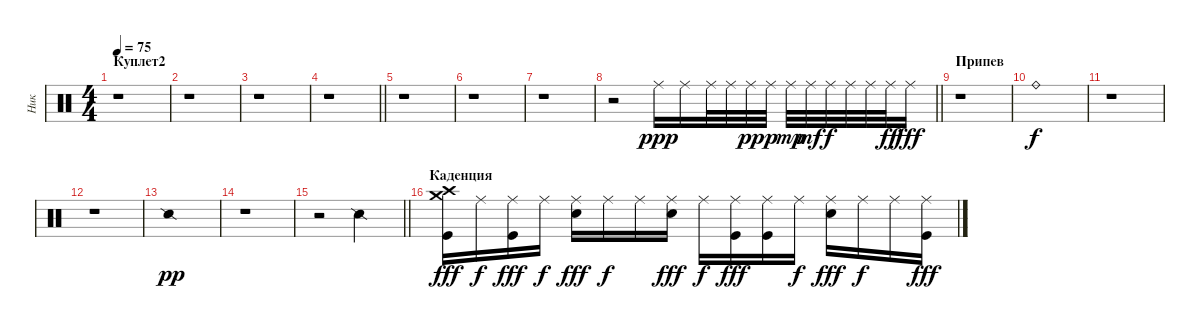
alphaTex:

\track ("Ник" "Ник") {instrument percussion}
\staff {score}
\articulation defaults
\ts (4 4)
\section ("" "Куплет2")
\tempo 75
\clef neutral
\ks c
r.1{dy ppp} |
r.1 |
r.1 |
\barLineRight lightlight
r.1 |
r.1 |
r.1 |
r.1 |
\barLineRight lightlight
r.2 "Ride (middle)".16 "Ride (middle)".16 "Ride (middle)".32 "Ride (middle)".32 "Ride (middle)".32{dy pp} "Ride (middle)".32{dy p} "Ride (middle)".32{dy mp} "Ride (middle)".32{dy mf} "Ride (middle)".32{dy f} "Ride (middle)".32 "Ride (middle)".32 "Ride (middle)".32{dy ff} "Ride (middle)".16{dy fff} |
\section ("" "Припев")
r.1 |
"Ride (bell)".1{dy f} |
r.1 |
r.1 |
"Snare (side stick) 2".1{dy pp} |
r.1 |
\barLineRight lightlight
r.2 "Snare (side stick) 2".2 |
\section ("" "Каденция")
("Crash medium (hit)" "Crash high (hit)" "Kick (hit)").16{dy fff} "Ride (middle)".16{dy f} ("Ride (middle)" "Kick (hit)").16{dy fff} "Ride (middle)".16{dy f} ("Ride (middle)" "Snare (hit) 2").16{dy fff} "Ride (middle)".16{dy f} "Ride (middle)".16 ("Ride (middle)" "Snare (hit) 2").16{dy fff} "Ride (middle)".16{dy f} ("Ride (middle)" "Kick (hit)").16{dy fff} ("Ride (middle)" "Kick (hit)").16 "Ride (middle)".16{dy f} ("Ride (middle)" "Snare (hit) 2").16{dy fff} "Ride (middle)".16{dy f} "Ride (middle)".16 ("Ride (middle)" "Kick (hit)").16{dy fff}
